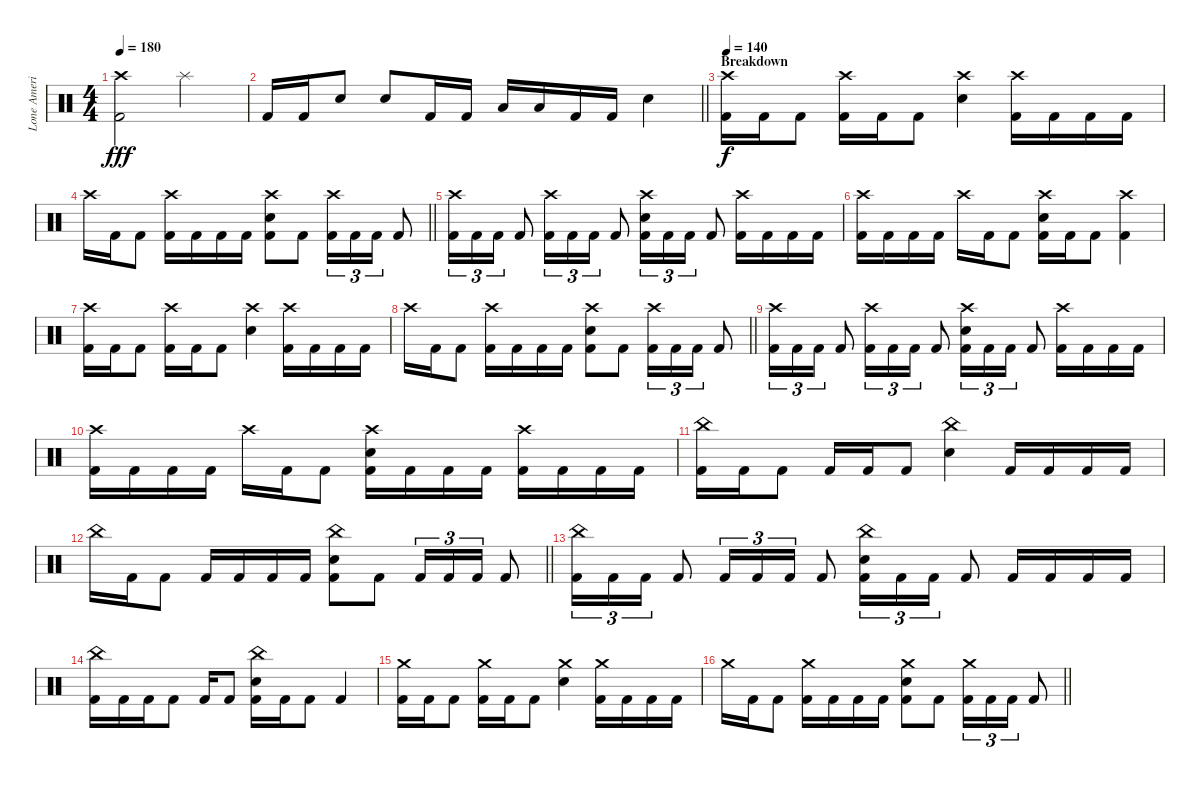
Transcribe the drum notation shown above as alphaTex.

\track ("Lone America" "Lone Ameri") {instrument percussion}
\staff {score}
\articulation defaults
\ts (4 4)
\tempo 180
\clef neutral
\ks c
("Crash high (hit)" "Kick (hit) 2").2{dy fff} "Splash (hit)".2 |
\barLineRight lightlight "Kick (hit) 2".16 "Kick (hit) 2".16 "Electric Snare (hit)".8 "Electric Snare (hit)".8 "Kick (hit) 2".16 "Kick (hit) 2".16 "Low Tom (hit)".16 "Low Tom (hit)".16 "Kick (hit) 2".16 "Kick (hit) 2".16 "Electric Snare (hit)".4
|
\section ("" "Breakdown")
\tempo 140
("Crash high (hit)" "Kick (hit) 2").16{dy f} "Kick (hit) 2".16 "Kick (hit) 2".8 ("Crash high (hit)" "Kick (hit) 2").16 "Kick (hit) 2".16 "Kick (hit) 2".8 ("Crash high (hit)" "Electric Snare (hit)").4 ("Crash high (hit)" "Kick (hit) 2").16 "Kick (hit) 2".16 "Kick (hit) 2".16 "Kick (hit) 2".16 |
\barLineRight lightlight "Crash high (hit)".16 "Kick (hit) 2".16 "Kick (hit) 2".8
("Crash high (hit)" "Kick (hit) 2").16 "Kick (hit) 2".16 "Kick (hit) 2".16 "Kick (hit) 2".16 ("Crash high (hit)" "Electric Snare (hit)" "Kick (hit) 2").8 "Kick (hit) 2".8 ("Crash high (hit)" "Kick (hit) 2").16{tu (3 2)} "Kick (hit) 2".16{tu (3 2)} "Kick (hit) 2".16{tu (3 2)} "Kick (hit) 2".8 |
("Crash high (hit)" "Kick (hit) 2").16{tu (3 2)} "Kick (hit) 2".16{tu (3 2)} "Kick (hit) 2".16{tu (3 2)} "Kick (hit) 2".8 ("Crash high (hit)" "Kick (hit) 2").16{tu (3 2)} "Kick (hit) 2".16{tu (3 2)} "Kick (hit) 2".16{tu (3 2)} "Kick (hit) 2".8 ("Crash high (hit)" "Electric Snare (hit)" "Kick (hit) 2").16{tu (3 2)} "Kick (hit) 2".16{tu (3 2)} "Kick (hit) 2".16{tu (3 2)} "Kick (hit) 2".8 ("Crash high (hit)" "Kick (hit) 2").16 "Kick (hit) 2".16 "Kick (hit) 2".16 "Kick (hit) 2".16 |
("Crash high (hit)" "Kick (hit) 2").16 "Kick (hit) 2".16 "Kick (hit) 2".16 "Kick (hit) 2".16 "Crash high (hit)".16 "Kick (hit) 2".16 "Kick (hit) 2".8 ("Crash high (hit)" "Electric Snare (hit)" "Kick (hit) 2").16 "Kick (hit) 2".16 "Kick (hit) 2".8 ("Crash high (hit)" "Kick (hit) 2").4 |
("Crash high (hit)" "Kick (hit) 2").16 "Kick (hit) 2".16 "Kick (hit) 2".8 ("Crash high (hit)" "Kick (hit) 2").16 "Kick (hit) 2".16 "Kick (hit) 2".8 ("Crash high (hit)" "Electric Snare (hit)").4 ("Crash high (hit)" "Kick (hit) 2").16 "Kick (hit) 2".16 "Kick (hit) 2".16 "Kick (hit) 2".16 |
\barLineRight lightlight "Crash high (hit)".16 "Kick (hit) 2".16 "Kick (hit) 2".8
("Crash high (hit)" "Kick (hit) 2").16 "Kick (hit) 2".16 "Kick (hit) 2".16 "Kick (hit) 2".16 ("Crash high (hit)" "Electric Snare (hit)" "Kick (hit) 2").8 "Kick (hit) 2".8 ("Crash high (hit)" "Kick (hit) 2").16{tu (3 2)} "Kick (hit) 2".16{tu (3 2)} "Kick (hit) 2".16{tu (3 2)} "Kick (hit) 2".8 |
("Crash high (hit)" "Kick (hit) 2").16{tu (3 2)} "Kick (hit) 2".16{tu (3 2)} "Kick (hit) 2".16{tu (3 2)} "Kick (hit) 2".8 ("Crash high (hit)" "Kick (hit) 2").16{tu (3 2)} "Kick (hit) 2".16{tu (3 2)} "Kick (hit) 2".16{tu (3 2)} "Kick (hit) 2".8 ("Crash high (hit)" "Electric Snare (hit)" "Kick (hit) 2").16{tu (3 2)} "Kick (hit) 2".16{tu (3 2)} "Kick (hit) 2".16{tu (3 2)} "Kick (hit) 2".8 ("Crash high (hit)" "Kick (hit) 2").16 "Kick (hit) 2".16 "Kick (hit) 2".16 "Kick (hit) 2".16 |
("Crash high (hit)" "Kick (hit) 2").16 "Kick (hit) 2".16 "Kick (hit) 2".16 "Kick (hit) 2".16 "Crash high (hit)".16 "Kick (hit) 2".16 "Kick (hit) 2".8 ("Crash high (hit)" "Electric Snare (hit)" "Kick (hit) 2").16 "Kick (hit) 2".16 "Kick (hit) 2".16 "Kick (hit) 2".16 ("Crash high (hit)" "Kick (hit) 2").16 "Kick (hit) 2".16 "Kick (hit) 2".16 "Kick (hit) 2".16 |
("China (hit)" "Kick (hit) 2").16 "Kick (hit) 2".16 "Kick (hit) 2".8 "Kick (hit) 2".16 "Kick (hit) 2".16 "Kick (hit) 2".8 ("China (hit)" "Electric Snare (hit)").4 "Kick (hit) 2".16 "Kick (hit) 2".16 "Kick (hit) 2".16 "Kick (hit) 2".16 |
\barLineRight lightlight "China (hit)".16 "Kick (hit) 2".16 "Kick (hit) 2".8 "Kick (hit) 2".16 "Kick (hit) 2".16 "Kick (hit) 2".16 "Kick (hit) 2".16
("China (hit)" "Electric Snare (hit)" "Kick (hit) 2").8 "Kick (hit) 2".8 "Kick (hit) 2".16{tu (3 2)} "Kick (hit) 2".16{tu (3 2)} "Kick (hit) 2".16{tu (3 2)} "Kick (hit) 2".8 |
("China (hit)" "Kick (hit) 2").16{tu (3 2)} "Kick (hit) 2".16{tu (3 2)} "Kick (hit) 2".16{tu (3 2)} "Kick (hit) 2".8 "Kick (hit) 2".16{tu (3 2)} "Kick (hit) 2".16{tu (3 2)} "Kick (hit) 2".16{tu (3 2)} "Kick (hit) 2".8 ("China (hit)" "Electric Snare (hit)" "Kick (hit) 2").16{tu (3 2)} "Kick (hit) 2".16{tu (3 2)} "Kick (hit) 2".16{tu (3 2)} "Kick (hit) 2".8 "Kick (hit) 2".16 "Kick (hit) 2".16 "Kick (hit) 2".16 "Kick (hit) 2".16 |
("China (hit)" "Kick (hit) 2").16 "Kick (hit) 2".16 "Kick (hit) 2".16 "Kick (hit) 2".8 "Kick (hit) 2".16 "Kick (hit) 2".8 ("China (hit)" "Electric Snare (hit)" "Kick (hit) 2").16 "Kick (hit) 2".16 "Kick (hit) 2".8 "Kick (hit) 2".4 |
("Crash medium (hit)" "Kick (hit) 2").16 "Kick (hit) 2".16 "Kick (hit) 2".8 ("Crash medium (hit)" "Kick (hit) 2").16 "Kick (hit) 2".16 "Kick (hit) 2".8 ("Crash medium (hit)" "Electric Snare (hit)").4 ("Crash medium (hit)" "Kick (hit) 2").16 "Kick (hit) 2".16 "Kick (hit) 2".16 "Kick (hit) 2".16 |
\barLineRight lightlight "Crash medium (hit)".16 "Kick (hit) 2".16 "Kick (hit) 2".8
("Crash medium (hit)" "Kick (hit) 2").16 "Kick (hit) 2".16 "Kick (hit) 2".16 "Kick (hit) 2".16 ("Crash medium (hit)" "Electric Snare (hit)" "Kick (hit) 2").8 "Kick (hit) 2".8 ("Crash medium (hit)" "Kick (hit) 2").16{tu (3 2)} "Kick (hit) 2".16{tu (3 2)} "Kick (hit) 2".16{tu (3 2)} "Kick (hit) 2".8
